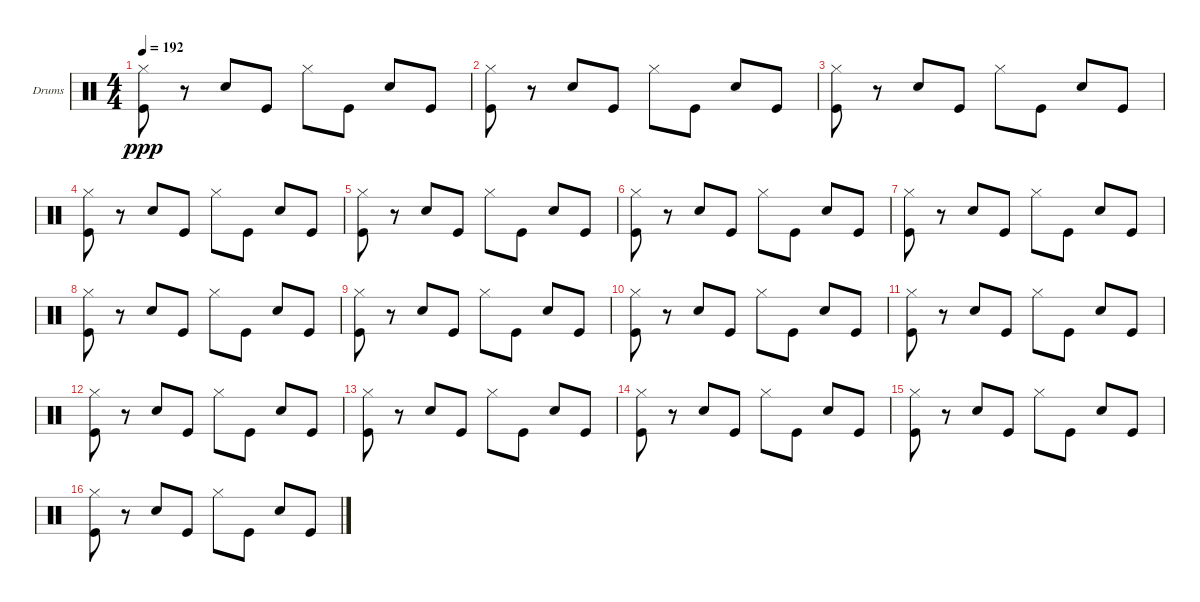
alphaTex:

\bracketExtendMode groupsimilarinstruments
\firstSystemTrackNameOrientation horizontal
\otherSystemsTrackNameOrientation horizontal
\track ("Drumkit" "Drums") {instrument percussion}
\staff {score}
\articulation defaults
\ts (4 4)
\tempo 192
\clef neutral
\ks c
("Kick (hit)" "Hi-Hat (closed)").8{dy ppp} r.8 "Snare (hit) 2".8 "Kick (hit)".8 "Hi-Hat (closed)".8 "Kick (hit)".8 "Snare (hit) 2".8 "Kick (hit)".8 |
("Kick (hit)" "Hi-Hat (closed)").8 r.8 "Snare (hit) 2".8 "Kick (hit)".8 "Hi-Hat (closed)".8 "Kick (hit)".8 "Snare (hit) 2".8 "Kick (hit)".8 |
("Kick (hit)" "Hi-Hat (closed)").8 r.8 "Snare (hit) 2".8 "Kick (hit)".8 "Hi-Hat (closed)".8 "Kick (hit)".8 "Snare (hit) 2".8 "Kick (hit)".8 |
("Kick (hit)" "Hi-Hat (closed)").8 r.8 "Snare (hit) 2".8 "Kick (hit)".8 "Hi-Hat (closed)".8 "Kick (hit)".8 "Snare (hit) 2".8 "Kick (hit)".8 |
("Kick (hit)" "Hi-Hat (closed)").8 r.8 "Snare (hit) 2".8 "Kick (hit)".8 "Hi-Hat (closed)".8 "Kick (hit)".8 "Snare (hit) 2".8 "Kick (hit)".8 |
("Kick (hit)" "Hi-Hat (closed)").8 r.8 "Snare (hit) 2".8 "Kick (hit)".8 "Hi-Hat (closed)".8 "Kick (hit)".8 "Snare (hit) 2".8 "Kick (hit)".8 |
("Kick (hit)" "Hi-Hat (closed)").8 r.8 "Snare (hit) 2".8 "Kick (hit)".8 "Hi-Hat (closed)".8 "Kick (hit)".8 "Snare (hit) 2".8 "Kick (hit)".8 |
("Kick (hit)" "Hi-Hat (closed)").8 r.8 "Snare (hit) 2".8 "Kick (hit)".8 "Hi-Hat (closed)".8 "Kick (hit)".8 "Snare (hit) 2".8 "Kick (hit)".8 |
("Kick (hit)" "Hi-Hat (closed)").8 r.8 "Snare (hit) 2".8 "Kick (hit)".8 "Hi-Hat (closed)".8 "Kick (hit)".8 "Snare (hit) 2".8 "Kick (hit)".8 |
("Kick (hit)" "Hi-Hat (closed)").8 r.8 "Snare (hit) 2".8 "Kick (hit)".8 "Hi-Hat (closed)".8 "Kick (hit)".8 "Snare (hit) 2".8 "Kick (hit)".8 |
("Kick (hit)" "Hi-Hat (closed)").8 r.8 "Snare (hit) 2".8 "Kick (hit)".8 "Hi-Hat (closed)".8 "Kick (hit)".8 "Snare (hit) 2".8 "Kick (hit)".8 |
("Kick (hit)" "Hi-Hat (closed)").8 r.8 "Snare (hit) 2".8 "Kick (hit)".8 "Hi-Hat (closed)".8 "Kick (hit)".8 "Snare (hit) 2".8 "Kick (hit)".8 |
("Kick (hit)" "Hi-Hat (closed)").8 r.8 "Snare (hit) 2".8 "Kick (hit)".8 "Hi-Hat (closed)".8 "Kick (hit)".8 "Snare (hit) 2".8 "Kick (hit)".8 |
("Kick (hit)" "Hi-Hat (closed)").8 r.8 "Snare (hit) 2".8 "Kick (hit)".8 "Hi-Hat (closed)".8 "Kick (hit)".8 "Snare (hit) 2".8 "Kick (hit)".8 |
("Kick (hit)" "Hi-Hat (closed)").8 r.8 "Snare (hit) 2".8 "Kick (hit)".8 "Hi-Hat (closed)".8 "Kick (hit)".8 "Snare (hit) 2".8 "Kick (hit)".8 |
("Kick (hit)" "Hi-Hat (closed)").8 r.8 "Snare (hit) 2".8 "Kick (hit)".8 "Hi-Hat (closed)".8 "Kick (hit)".8 "Snare (hit) 2".8 "Kick (hit)".8
